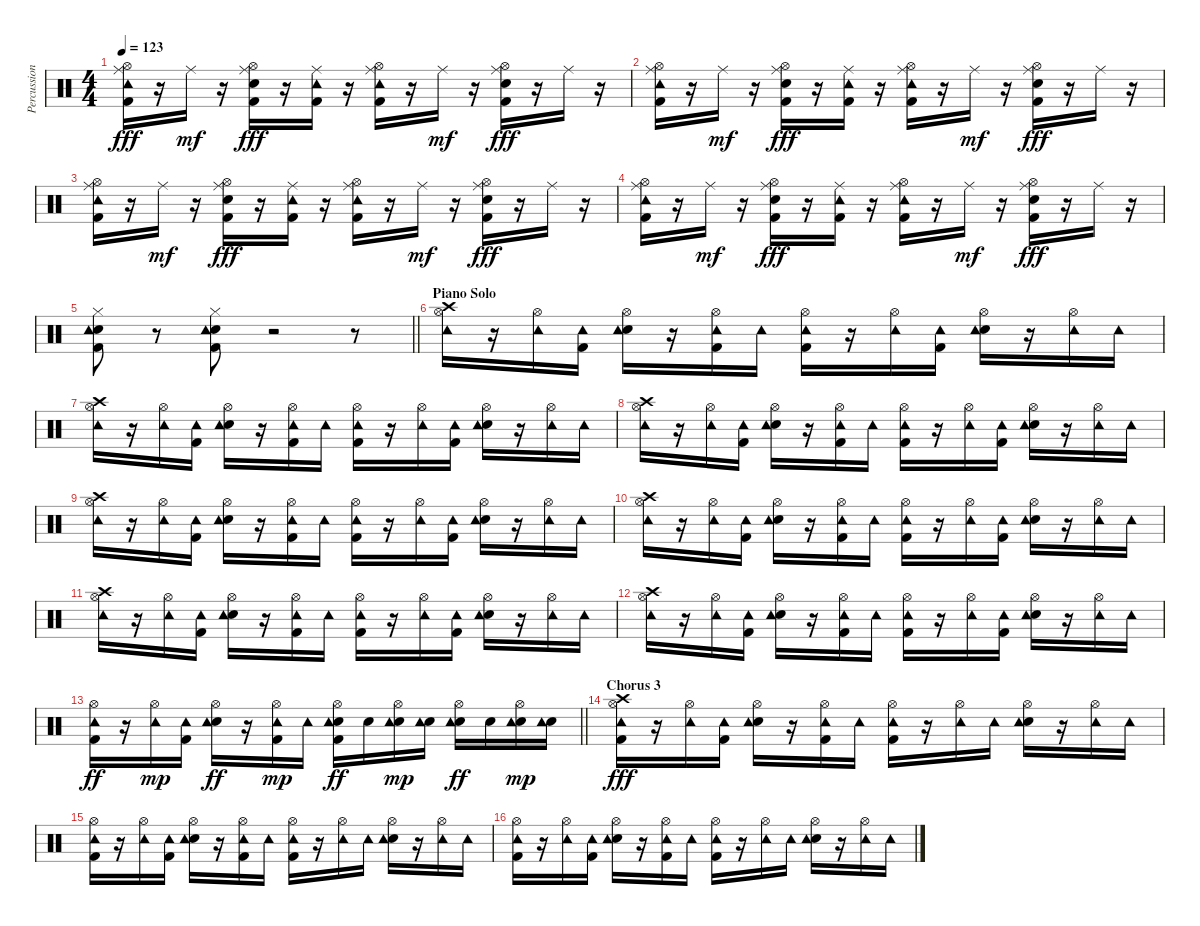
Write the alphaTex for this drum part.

\track ("Percussion: Liberty D'Vitto" "Percussion") {instrument percussion}
\staff {score}
\articulation defaults
\ts (4 4)
\tempo 123
\clef neutral
\ks c
("Ride (middle)" "Hi-Hat (open)" "Tambourine (hit)" "Kick (hit) 2").16{dy fff} r.16 "Ride (middle)".16{dy mf} r.16 ("Ride (middle)" "Hi-Hat (open)" "Snare (hit) 2" "Kick (hit) 2").16{dy fff} r.16 ("Ride (middle)" "Tambourine (hit)" "Kick (hit) 2").16 r.16 ("Ride (middle)" "Hi-Hat (open)" "Tambourine (hit)" "Kick (hit) 2").16 r.16 "Ride (middle)".16{dy mf} r.16 ("Ride (middle)" "Hi-Hat (open)" "Snare (hit) 2" "Kick (hit) 2").16{dy fff} r.16 "Ride (middle)".16 r.16 |
("Ride (middle)" "Hi-Hat (open)" "Tambourine (hit)" "Kick (hit) 2").16 r.16 "Ride (middle)".16{dy mf} r.16 ("Ride (middle)" "Hi-Hat (open)" "Snare (hit) 2" "Kick (hit) 2").16{dy fff} r.16 ("Ride (middle)" "Tambourine (hit)" "Kick (hit) 2").16 r.16 ("Ride (middle)" "Hi-Hat (open)" "Tambourine (hit)" "Kick (hit) 2").16 r.16 "Ride (middle)".16{dy mf} r.16 ("Ride (middle)" "Hi-Hat (open)" "Snare (hit) 2" "Kick (hit) 2").16{dy fff} r.16 "Ride (middle)".16 r.16 |
("Ride (middle)" "Hi-Hat (open)" "Tambourine (hit)" "Kick (hit) 2").16 r.16 "Ride (middle)".16{dy mf} r.16 ("Ride (middle)" "Hi-Hat (open)" "Snare (hit) 2" "Kick (hit) 2").16{dy fff} r.16 ("Ride (middle)" "Tambourine (hit)" "Kick (hit) 2").16 r.16 ("Ride (middle)" "Hi-Hat (open)" "Tambourine (hit)" "Kick (hit) 2").16 r.16 "Ride (middle)".16{dy mf} r.16 ("Ride (middle)" "Hi-Hat (open)" "Snare (hit) 2" "Kick (hit) 2").16{dy fff} r.16 "Ride (middle)".16 r.16 |
("Ride (middle)" "Hi-Hat (open)" "Tambourine (hit)" "Kick (hit) 2").16 r.16 "Ride (middle)".16{dy mf} r.16 ("Ride (middle)" "Hi-Hat (open)" "Snare (hit) 2" "Kick (hit) 2").16{dy fff} r.16 ("Ride (middle)" "Tambourine (hit)" "Kick (hit) 2").16 r.16 ("Ride (middle)" "Hi-Hat (open)" "Tambourine (hit)" "Kick (hit) 2").16 r.16 "Ride (middle)".16{dy mf} r.16 ("Ride (middle)" "Hi-Hat (open)" "Snare (hit) 2" "Kick (hit) 2").16{dy fff} r.16 "Ride (middle)".16 r.16 |
\barLineRight lightlight
("Hi-Hat (closed)" "Snare (hit) 2" "Tambourine (hit)" "Kick (hit) 2").8 r.8 ("Hi-Hat (closed)" "Snare (hit) 2" "Tambourine (hit)" "Kick (hit) 2").8 r.2 r.8 |
\section ("" "Piano Solo")
("Crash high (hit)" "Hi-Hat (open)" "Tambourine (hit)").16 r.16 ("Hi-Hat (open)" "Tambourine (hit)").16 ("Tambourine (hit)" "Kick (hit) 2").16 ("Hi-Hat (open)" "Snare (hit) 2" "Tambourine (hit)").16 r.16 ("Hi-Hat (open)" "Tambourine (hit)" "Kick (hit) 2").16 "Tambourine (hit)".16 ("Hi-Hat (open)" "Tambourine (hit)" "Kick (hit) 2").16 r.16 ("Hi-Hat (open)" "Tambourine (hit)").16 ("Tambourine (hit)" "Kick (hit) 2").16 ("Hi-Hat (open)" "Snare (hit) 2" "Tambourine (hit)").16 r.16 ("Hi-Hat (open)" "Tambourine (hit)").16 "Tambourine (hit)".16 |
("Crash high (hit)" "Hi-Hat (open)" "Tambourine (hit)").16 r.16 ("Hi-Hat (open)" "Tambourine (hit)").16 ("Tambourine (hit)" "Kick (hit) 2").16 ("Hi-Hat (open)" "Snare (hit) 2" "Tambourine (hit)").16 r.16 ("Hi-Hat (open)" "Tambourine (hit)" "Kick (hit) 2").16 "Tambourine (hit)".16 ("Hi-Hat (open)" "Tambourine (hit)" "Kick (hit) 2").16 r.16 ("Hi-Hat (open)" "Tambourine (hit)").16 ("Tambourine (hit)" "Kick (hit) 2").16 ("Hi-Hat (open)" "Snare (hit) 2" "Tambourine (hit)").16 r.16 ("Hi-Hat (open)" "Tambourine (hit)").16 "Tambourine (hit)".16 |
("Crash high (hit)" "Hi-Hat (open)" "Tambourine (hit)").16 r.16 ("Hi-Hat (open)" "Tambourine (hit)").16 ("Tambourine (hit)" "Kick (hit) 2").16 ("Hi-Hat (open)" "Snare (hit) 2" "Tambourine (hit)").16 r.16 ("Hi-Hat (open)" "Tambourine (hit)" "Kick (hit) 2").16 "Tambourine (hit)".16 ("Hi-Hat (open)" "Tambourine (hit)" "Kick (hit) 2").16 r.16 ("Hi-Hat (open)" "Tambourine (hit)").16 ("Tambourine (hit)" "Kick (hit) 2").16 ("Hi-Hat (open)" "Snare (hit) 2" "Tambourine (hit)").16 r.16 ("Hi-Hat (open)" "Tambourine (hit)").16 "Tambourine (hit)".16 |
("Crash high (hit)" "Hi-Hat (open)" "Tambourine (hit)").16 r.16 ("Hi-Hat (open)" "Tambourine (hit)").16 ("Tambourine (hit)" "Kick (hit) 2").16 ("Hi-Hat (open)" "Snare (hit) 2" "Tambourine (hit)").16 r.16 ("Hi-Hat (open)" "Tambourine (hit)" "Kick (hit) 2").16 "Tambourine (hit)".16 ("Hi-Hat (open)" "Tambourine (hit)" "Kick (hit) 2").16 r.16 ("Hi-Hat (open)" "Tambourine (hit)").16 ("Tambourine (hit)" "Kick (hit) 2").16 ("Hi-Hat (open)" "Snare (hit) 2" "Tambourine (hit)").16 r.16 ("Hi-Hat (open)" "Tambourine (hit)").16 "Tambourine (hit)".16 |
("Crash high (hit)" "Hi-Hat (open)" "Tambourine (hit)").16 r.16 ("Hi-Hat (open)" "Tambourine (hit)").16 ("Tambourine (hit)" "Kick (hit) 2").16 ("Hi-Hat (open)" "Snare (hit) 2" "Tambourine (hit)").16 r.16 ("Hi-Hat (open)" "Tambourine (hit)" "Kick (hit) 2").16 "Tambourine (hit)".16 ("Hi-Hat (open)" "Tambourine (hit)" "Kick (hit) 2").16 r.16 ("Hi-Hat (open)" "Tambourine (hit)").16 ("Tambourine (hit)" "Kick (hit) 2").16 ("Hi-Hat (open)" "Snare (hit) 2" "Tambourine (hit)").16 r.16 ("Hi-Hat (open)" "Tambourine (hit)").16 "Tambourine (hit)".16 |
("Crash high (hit)" "Hi-Hat (open)" "Tambourine (hit)").16 r.16 ("Hi-Hat (open)" "Tambourine (hit)").16 ("Tambourine (hit)" "Kick (hit) 2").16 ("Hi-Hat (open)" "Snare (hit) 2" "Tambourine (hit)").16 r.16 ("Hi-Hat (open)" "Tambourine (hit)" "Kick (hit) 2").16 "Tambourine (hit)".16 ("Hi-Hat (open)" "Tambourine (hit)" "Kick (hit) 2").16 r.16 ("Hi-Hat (open)" "Tambourine (hit)").16 ("Tambourine (hit)" "Kick (hit) 2").16 ("Hi-Hat (open)" "Snare (hit) 2" "Tambourine (hit)").16 r.16 ("Hi-Hat (open)" "Tambourine (hit)").16 "Tambourine (hit)".16 |
("Crash high (hit)" "Hi-Hat (open)" "Tambourine (hit)").16 r.16 ("Hi-Hat (open)" "Tambourine (hit)").16 ("Tambourine (hit)" "Kick (hit) 2").16 ("Hi-Hat (open)" "Snare (hit) 2" "Tambourine (hit)").16 r.16 ("Hi-Hat (open)" "Tambourine (hit)" "Kick (hit) 2").16 "Tambourine (hit)".16 ("Hi-Hat (open)" "Tambourine (hit)" "Kick (hit) 2").16 r.16 ("Hi-Hat (open)" "Tambourine (hit)").16 ("Tambourine (hit)" "Kick (hit) 2").16 ("Hi-Hat (open)" "Snare (hit) 2" "Tambourine (hit)").16 r.16 ("Hi-Hat (open)" "Tambourine (hit)").16 "Tambourine (hit)".16 |
\barLineRight lightlight
("Kick (hit) 2" "Hi-Hat (open)" "Tambourine (hit)").16{dy ff} r.16 ("Hi-Hat (open)" "Tambourine (hit)").16{dy mp} ("Kick (hit) 2" "Tambourine (hit)").16 ("Snare (hit) 2" "Hi-Hat (open)" "Tambourine (hit)").16{dy ff} r.16 ("Kick (hit) 2" "Hi-Hat (open)" "Tambourine (hit)").16{dy mp} "Tambourine (hit)".16 ("Kick (hit) 2" "Snare (hit) 2" "Hi-Hat (open)" "Tambourine (hit)").16{dy ff} "Snare (hit) 2".16 ("Snare (hit) 2" "Hi-Hat (open)" "Tambourine (hit)").16{dy mp} ("Snare (hit) 2" "Tambourine (hit)").16 ("Snare (hit) 2" "Hi-Hat (open)" "Tambourine (hit)").16{dy ff} "Snare (hit) 2".16 ("Snare (hit) 2" "Hi-Hat (open)" "Tambourine (hit)").16{dy mp} ("Snare (hit) 2" "Tambourine (hit)").16 |
\section ("" "Chorus 3")
("Crash high (hit)" "Hi-Hat (open)" "Tambourine (hit)" "Kick (hit) 2").16{dy fff} r.16 ("Hi-Hat (open)" "Tambourine (hit)").16 ("Tambourine (hit)" "Kick (hit) 2").16 ("Hi-Hat (open)" "Snare (hit) 2" "Tambourine (hit)").16 r.16 ("Hi-Hat (open)" "Tambourine (hit)" "Kick (hit) 2").16 "Tambourine (hit)".16 ("Hi-Hat (open)" "Tambourine (hit)" "Kick (hit) 2").16 r.16 ("Hi-Hat (open)" "Tambourine (hit)").16 "Tambourine (hit)".16 ("Hi-Hat (open)" "Snare (hit) 2" "Tambourine (hit)").16 r.16 ("Hi-Hat (open)" "Tambourine (hit)").16 "Tambourine (hit)".16 |
("Hi-Hat (open)" "Tambourine (hit)" "Kick (hit) 2").16 r.16 ("Hi-Hat (open)" "Tambourine (hit)").16 ("Tambourine (hit)" "Kick (hit) 2").16 ("Hi-Hat (open)" "Snare (hit) 2" "Tambourine (hit)").16 r.16 ("Hi-Hat (open)" "Tambourine (hit)" "Kick (hit) 2").16 "Tambourine (hit)".16 ("Hi-Hat (open)" "Tambourine (hit)" "Kick (hit) 2").16 r.16 ("Hi-Hat (open)" "Tambourine (hit)").16 "Tambourine (hit)".16 ("Hi-Hat (open)" "Snare (hit) 2" "Tambourine (hit)").16 r.16 ("Hi-Hat (open)" "Tambourine (hit)").16 "Tambourine (hit)".16 |
("Hi-Hat (open)" "Tambourine (hit)" "Kick (hit) 2").16 r.16 ("Hi-Hat (open)" "Tambourine (hit)").16 ("Tambourine (hit)" "Kick (hit) 2").16 ("Hi-Hat (open)" "Snare (hit) 2" "Tambourine (hit)").16 r.16 ("Hi-Hat (open)" "Tambourine (hit)" "Kick (hit) 2").16 "Tambourine (hit)".16 ("Hi-Hat (open)" "Tambourine (hit)" "Kick (hit) 2").16 r.16 ("Hi-Hat (open)" "Tambourine (hit)").16 "Tambourine (hit)".16 ("Hi-Hat (open)" "Snare (hit) 2" "Tambourine (hit)").16 r.16 ("Hi-Hat (open)" "Tambourine (hit)").16 "Tambourine (hit)".16
